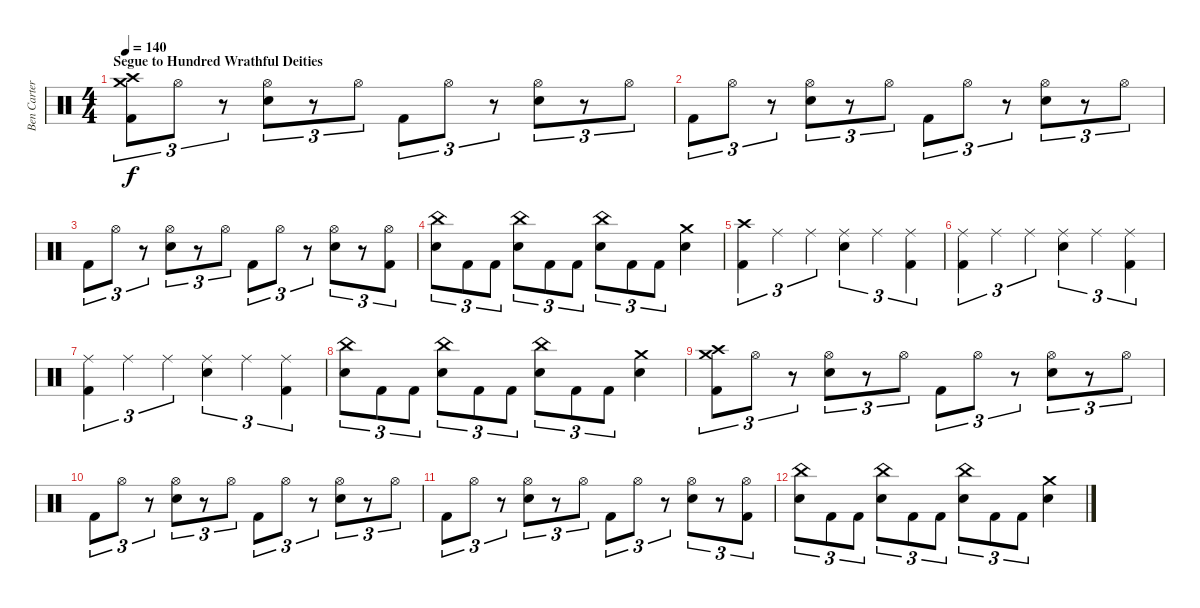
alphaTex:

\track ("Ben Carter" "Ben Carter") {instrument percussion}
\staff {score}
\articulation defaults
\ts (4 4)
\section ("" "Segue to Hundred Wrathful Deities")
\tempo 140
\clef neutral
\ks c
("Crash medium (hit)" "Crash high (hit)" "Kick (hit) 2").8{tu (3 2) dy f} "Hi-Hat (open)".8{tu (3 2)} r.8{tu (3 2)} ("Hi-Hat (open)" "Snare (hit) 2").8{tu (3 2)} r.8{tu (3 2)} "Hi-Hat (open)".8{tu (3 2)} "Kick (hit) 2".8{tu (3 2)} "Hi-Hat (open)".8{tu (3 2)} r.8{tu (3 2)} ("Hi-Hat (open)" "Snare (hit) 2").8{tu (3 2)} r.8{tu (3 2)} "Hi-Hat (open)".8{tu (3 2)} |
"Kick (hit) 2".8{tu (3 2)} "Hi-Hat (open)".8{tu (3 2)} r.8{tu (3 2)} ("Hi-Hat (open)" "Snare (hit) 2").8{tu (3 2)} r.8{tu (3 2)} "Hi-Hat (open)".8{tu (3 2)} "Kick (hit) 2".8{tu (3 2)} "Hi-Hat (open)".8{tu (3 2)} r.8{tu (3 2)} ("Hi-Hat (open)" "Snare (hit) 2").8{tu (3 2)} r.8{tu (3 2)} "Hi-Hat (open)".8{tu (3 2)} |
"Kick (hit) 2".8{tu (3 2)} "Hi-Hat (open)".8{tu (3 2)} r.8{tu (3 2)} ("Hi-Hat (open)" "Snare (hit) 2").8{tu (3 2)} r.8{tu (3 2)} "Hi-Hat (open)".8{tu (3 2)} "Kick (hit) 2".8{tu (3 2)} "Hi-Hat (open)".8{tu (3 2)} r.8{tu (3 2)} ("Hi-Hat (open)" "Snare (hit) 2").8{tu (3 2)} r.8{tu (3 2)} ("Hi-Hat (open)" "Kick (hit) 2").8{tu (3 2)} |
("China (hit)" "Snare (hit) 2").8{tu (3 2) volume 5} "Kick (hit) 2".8{tu (3 2)} "Kick (hit) 2".8{tu (3 2)} ("China (hit)" "Snare (hit) 2").8{tu (3 2)} "Kick (hit) 2".8{tu (3 2)} "Kick (hit) 2".8{tu (3 2)} ("China (hit)" "Snare (hit) 2").8{tu (3 2)} "Kick (hit) 2".8{tu (3 2)} "Kick (hit) 2".8{tu (3 2)} ("Crash medium (hit)" "Snare (hit) 2").4 |
("Crash high (hit)" "Kick (hit) 2").4{tu (3 2)} "Ride (middle)".4{tu (3 2)} "Ride (middle)".4{tu (3 2)} ("Ride (middle)" "Snare (hit) 2").4{tu (3 2)} "Ride (middle)".4{tu (3 2)} ("Ride (middle)" "Kick (hit) 2").4{tu (3 2)} |
("Ride (middle)" "Kick (hit) 2").4{tu (3 2)} "Ride (middle)".4{tu (3 2)} "Ride (middle)".4{tu (3 2)} ("Ride (middle)" "Snare (hit) 2").4{tu (3 2)} "Ride (middle)".4{tu (3 2)} ("Ride (middle)" "Kick (hit) 2").4{tu (3 2)} |
("Ride (middle)" "Kick (hit) 2").4{tu (3 2)} "Ride (middle)".4{tu (3 2)} "Ride (middle)".4{tu (3 2)} ("Ride (middle)" "Snare (hit) 2").4{tu (3 2)} "Ride (middle)".4{tu (3 2)} ("Ride (middle)" "Kick (hit) 2").4{tu (3 2)} |
("China (hit)" "Snare (hit) 2").8{tu (3 2) volume 2} "Kick (hit) 2".8{tu (3 2)} "Kick (hit) 2".8{tu (3 2)} ("China (hit)" "Snare (hit) 2").8{tu (3 2)} "Kick (hit) 2".8{tu (3 2)} "Kick (hit) 2".8{tu (3 2)} ("China (hit)" "Snare (hit) 2").8{tu (3 2)} "Kick (hit) 2".8{tu (3 2)} "Kick (hit) 2".8{tu (3 2)} ("Crash medium (hit)" "Snare (hit) 2").4 |
("Crash medium (hit)" "Crash high (hit)" "Kick (hit) 2").8{tu (3 2)} "Hi-Hat (open)".8{tu (3 2)} r.8{tu (3 2)} ("Hi-Hat (open)" "Snare (hit) 2").8{tu (3 2)} r.8{tu (3 2)} "Hi-Hat (open)".8{tu (3 2)} "Kick (hit) 2".8{tu (3 2)} "Hi-Hat (open)".8{tu (3 2)} r.8{tu (3 2)} ("Hi-Hat (open)" "Snare (hit) 2").8{tu (3 2)} r.8{tu (3 2)} "Hi-Hat (open)".8{tu (3 2)} |
"Kick (hit) 2".8{tu (3 2)} "Hi-Hat (open)".8{tu (3 2)} r.8{tu (3 2)} ("Hi-Hat (open)" "Snare (hit) 2").8{tu (3 2)} r.8{tu (3 2)} "Hi-Hat (open)".8{tu (3 2)} "Kick (hit) 2".8{tu (3 2)} "Hi-Hat (open)".8{tu (3 2)} r.8{tu (3 2)} ("Hi-Hat (open)" "Snare (hit) 2").8{tu (3 2)} r.8{tu (3 2)} "Hi-Hat (open)".8{tu (3 2)} |
"Kick (hit) 2".8{tu (3 2)} "Hi-Hat (open)".8{tu (3 2)} r.8{tu (3 2)} ("Hi-Hat (open)" "Snare (hit) 2").8{tu (3 2)} r.8{tu (3 2)} "Hi-Hat (open)".8{tu (3 2)} "Kick (hit) 2".8{tu (3 2)} "Hi-Hat (open)".8{tu (3 2)} r.8{tu (3 2)} ("Hi-Hat (open)" "Snare (hit) 2").8{tu (3 2)} r.8{tu (3 2)} ("Hi-Hat (open)" "Kick (hit) 2").8{tu (3 2)} |
("China (hit)" "Snare (hit) 2").8{tu (3 2) volume 0} "Kick (hit) 2".8{tu (3 2)} "Kick (hit) 2".8{tu (3 2)} ("China (hit)" "Snare (hit) 2").8{tu (3 2)} "Kick (hit) 2".8{tu (3 2)} "Kick (hit) 2".8{tu (3 2)} ("China (hit)" "Snare (hit) 2").8{tu (3 2)} "Kick (hit) 2".8{tu (3 2)} "Kick (hit) 2".8{tu (3 2)} ("Crash medium (hit)" "Snare (hit) 2").4
